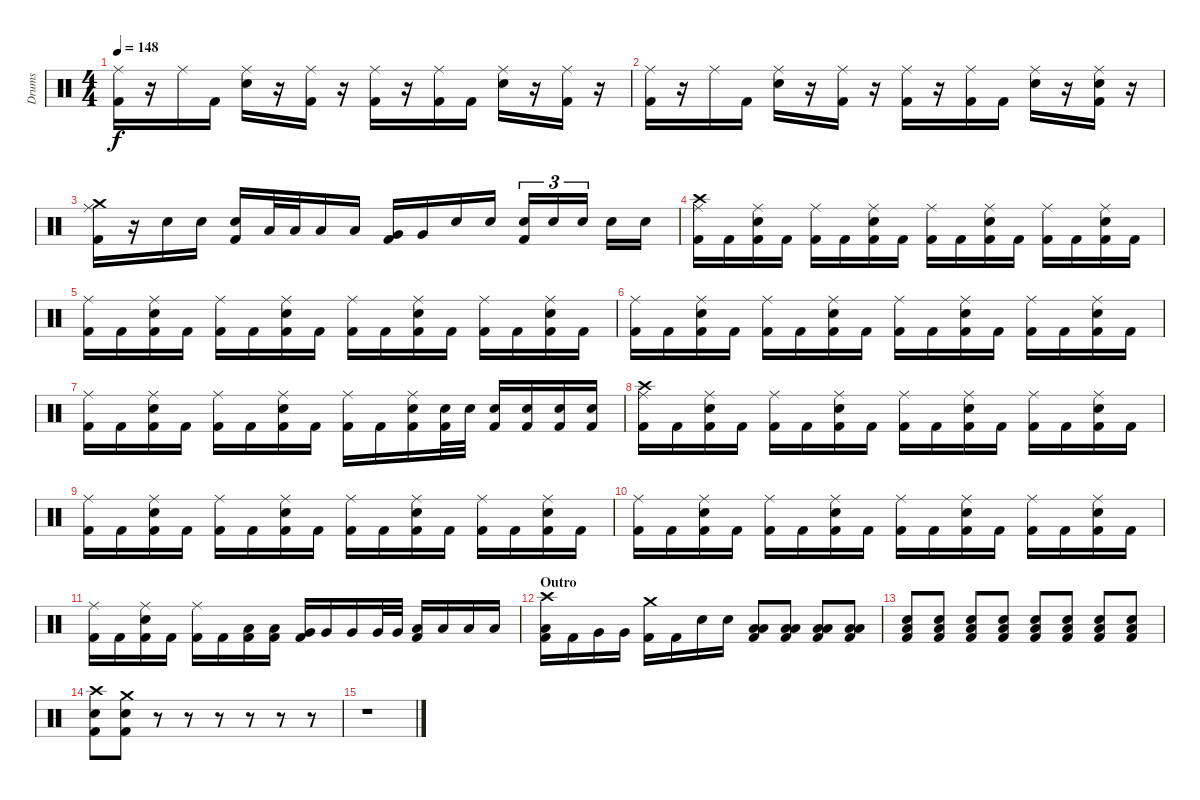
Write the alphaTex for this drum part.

\track ("Drums" "Drums") {instrument percussion}
\staff {score}
\articulation defaults
\ts (4 4)
\tempo 148
\clef neutral
\ks c
("Kick (hit) 2" "Ride (middle)").16{dy f} r.16 "Ride (middle)".16 "Kick (hit) 2".16 ("Electric Snare (hit)" "Ride (middle)").16 r.16 ("Kick (hit) 2" "Ride (middle)").16 r.16 ("Kick (hit) 2" "Ride (middle)").16 r.16 ("Kick (hit) 2" "Ride (middle)").16 "Kick (hit) 2".16 ("Electric Snare (hit)" "Ride (middle)").16 r.16 ("Kick (hit) 2" "Ride (middle)").16 r.16 |
("Kick (hit) 2" "Ride (middle)").16 r.16 "Ride (middle)".16 "Kick (hit) 2".16 ("Electric Snare (hit)" "Ride (middle)").16 r.16 ("Kick (hit) 2" "Ride (middle)").16 r.16 ("Kick (hit) 2" "Ride (middle)").16 r.16 ("Kick (hit) 2" "Ride (middle)").16 "Kick (hit) 2".16 ("Electric Snare (hit)" "Ride (middle)").16 r.16 ("Kick (hit) 2" "Electric Snare (hit)" "Ride (middle)").16 r.16 |
("Kick (hit) 2" "Ride (middle)" "Crash medium (hit)").16 r.16 "Electric Snare (hit)".16 "Electric Snare (hit)".16 ("Kick (hit) 2" "Electric Snare (hit)").16 "Low Tom (hit)".32 "Low Tom (hit)".32 "Low Tom (hit)".16 "Low Tom (hit)".16 ("Kick (hit) 2" "Very Low Tom (hit)").16 "Very Low Tom (hit)".16 "Electric Snare (hit)".16 "Electric Snare (hit)".16 ("Kick (hit) 2" "Electric Snare (hit)").16{tu (3 2)} "Electric Snare (hit)".16{tu (3 2)} "Electric Snare (hit)".16{tu (3 2)} "Electric Snare (hit)".16 "Electric Snare (hit)".16 |
("Kick (hit) 2" "Ride (middle)" "Crash high (hit)").16 "Kick (hit) 2".16 ("Kick (hit) 2" "Electric Snare (hit)" "Ride (middle)").16 "Kick (hit) 2".16 ("Kick (hit) 2" "Ride (middle)").16 "Kick (hit) 2".16 ("Kick (hit) 2" "Electric Snare (hit)" "Ride (middle)").16 "Kick (hit) 2".16 ("Kick (hit) 2" "Ride (middle)").16 "Kick (hit) 2".16 ("Kick (hit) 2" "Electric Snare (hit)" "Ride (middle)").16 "Kick (hit) 2".16 ("Kick (hit) 2" "Ride (middle)").16 "Kick (hit) 2".16 ("Kick (hit) 2" "Electric Snare (hit)" "Ride (middle)").16 "Kick (hit) 2".16 |
("Kick (hit) 2" "Ride (middle)").16 "Kick (hit) 2".16 ("Kick (hit) 2" "Electric Snare (hit)" "Ride (middle)").16 "Kick (hit) 2".16 ("Kick (hit) 2" "Ride (middle)").16 "Kick (hit) 2".16 ("Kick (hit) 2" "Electric Snare (hit)" "Ride (middle)").16 "Kick (hit) 2".16 ("Kick (hit) 2" "Ride (middle)").16 "Kick (hit) 2".16 ("Kick (hit) 2" "Electric Snare (hit)" "Ride (middle)").16 "Kick (hit) 2".16 ("Kick (hit) 2" "Ride (middle)").16 "Kick (hit) 2".16 ("Kick (hit) 2" "Electric Snare (hit)" "Ride (middle)").16 "Kick (hit) 2".16 |
("Kick (hit) 2" "Ride (middle)").16 "Kick (hit) 2".16 ("Kick (hit) 2" "Electric Snare (hit)" "Ride (middle)").16 "Kick (hit) 2".16 ("Kick (hit) 2" "Ride (middle)").16 "Kick (hit) 2".16 ("Kick (hit) 2" "Electric Snare (hit)" "Ride (middle)").16 "Kick (hit) 2".16 ("Kick (hit) 2" "Ride (middle)").16 "Kick (hit) 2".16 ("Kick (hit) 2" "Electric Snare (hit)" "Ride (middle)").16 "Kick (hit) 2".16 ("Kick (hit) 2" "Ride (middle)").16 "Kick (hit) 2".16 ("Kick (hit) 2" "Electric Snare (hit)" "Ride (middle)").16 "Kick (hit) 2".16 |
("Kick (hit) 2" "Ride (middle)").16 "Kick (hit) 2".16 ("Kick (hit) 2" "Electric Snare (hit)" "Ride (middle)").16 "Kick (hit) 2".16 ("Kick (hit) 2" "Ride (middle)").16 "Kick (hit) 2".16 ("Kick (hit) 2" "Electric Snare (hit)" "Ride (middle)").16 "Kick (hit) 2".16 ("Kick (hit) 2" "Ride (middle)").16 "Kick (hit) 2".16 ("Kick (hit) 2" "Electric Snare (hit)" "Ride (middle)").16 ("Kick (hit) 2" "Electric Snare (hit)").32 "Electric Snare (hit)".32 ("Kick (hit) 2" "Electric Snare (hit)").16 ("Kick (hit) 2" "Electric Snare (hit)").16 ("Kick (hit) 2" "Electric Snare (hit)").16 ("Kick (hit) 2" "Electric Snare (hit)").16 |
("Kick (hit) 2" "Ride (middle)" "Crash high (hit)").16 "Kick (hit) 2".16 ("Kick (hit) 2" "Electric Snare (hit)" "Ride (middle)").16 "Kick (hit) 2".16 ("Kick (hit) 2" "Ride (middle)").16 "Kick (hit) 2".16 ("Kick (hit) 2" "Electric Snare (hit)" "Ride (middle)").16 "Kick (hit) 2".16 ("Kick (hit) 2" "Ride (middle)").16 "Kick (hit) 2".16 ("Kick (hit) 2" "Electric Snare (hit)" "Ride (middle)").16 "Kick (hit) 2".16 ("Kick (hit) 2" "Ride (middle)").16 "Kick (hit) 2".16 ("Kick (hit) 2" "Electric Snare (hit)" "Ride (middle)").16 "Kick (hit) 2".16 |
("Kick (hit) 2" "Ride (middle)").16 "Kick (hit) 2".16 ("Kick (hit) 2" "Electric Snare (hit)" "Ride (middle)").16 "Kick (hit) 2".16 ("Kick (hit) 2" "Ride (middle)").16 "Kick (hit) 2".16 ("Kick (hit) 2" "Electric Snare (hit)" "Ride (middle)").16 "Kick (hit) 2".16 ("Kick (hit) 2" "Ride (middle)").16 "Kick (hit) 2".16 ("Kick (hit) 2" "Electric Snare (hit)" "Ride (middle)").16 "Kick (hit) 2".16 ("Kick (hit) 2" "Ride (middle)").16 "Kick (hit) 2".16 ("Kick (hit) 2" "Electric Snare (hit)" "Ride (middle)").16 "Kick (hit) 2".16 |
("Kick (hit) 2" "Ride (middle)").16 "Kick (hit) 2".16 ("Kick (hit) 2" "Electric Snare (hit)" "Ride (middle)").16 "Kick (hit) 2".16 ("Kick (hit) 2" "Ride (middle)").16 "Kick (hit) 2".16 ("Kick (hit) 2" "Electric Snare (hit)" "Ride (middle)").16 "Kick (hit) 2".16 ("Kick (hit) 2" "Ride (middle)").16 "Kick (hit) 2".16 ("Kick (hit) 2" "Electric Snare (hit)" "Ride (middle)").16 "Kick (hit) 2".16 ("Kick (hit) 2" "Ride (middle)").16 "Kick (hit) 2".16 ("Kick (hit) 2" "Electric Snare (hit)" "Ride (middle)").16 "Kick (hit) 2".16 |
("Kick (hit) 2" "Ride (middle)").16 "Kick (hit) 2".16 ("Kick (hit) 2" "Electric Snare (hit)" "Ride (middle)").16 "Kick (hit) 2".16 ("Kick (hit) 2" "Ride (middle)").16 "Kick (hit) 2".16 ("Kick (hit) 2" "Low Tom (hit)").16 ("Kick (hit) 2" "Low Tom (hit)").16 ("Kick (hit) 2" "Very Low Tom (hit)").16 "Very Low Tom (hit)".16 "Very Low Tom (hit)".16 "Very Low Tom (hit)".32 "Very Low Tom (hit)".32 ("Kick (hit) 2" "Low Floor Tom (hit)").16 "Low Floor Tom (hit)".16 "Low Floor Tom (hit)".16 "Low Floor Tom (hit)".16 |
\section ("" "Outro")
("Kick (hit) 2" "Low Tom (hit)" "Crash high (hit)").16 "Kick (hit) 2".16 "Very Low Tom (hit)".16 "Very Low Tom (hit)".16 ("Kick (hit) 2" "Crash medium (hit)").16 "Kick (hit) 2".16 "Electric Snare (hit)".16 "Electric Snare (hit)".16 ("Kick (hit) 2" "Low Tom (hit)" "Low Floor Tom (hit)").8 ("Kick (hit) 2" "Low Tom (hit)" "Low Floor Tom (hit)").8 ("Kick (hit) 2" "Low Tom (hit)" "Low Floor Tom (hit)").8 ("Kick (hit) 2" "Low Tom (hit)" "Low Floor Tom (hit)").8 |
("Kick (hit) 2" "Electric Snare (hit)" "Low Floor Tom (hit)").8 ("Kick (hit) 2" "Electric Snare (hit)" "Low Floor Tom (hit)").8 ("Kick (hit) 2" "Electric Snare (hit)" "Low Floor Tom (hit)").8 ("Kick (hit) 2" "Electric Snare (hit)" "Low Floor Tom (hit)").8 ("Kick (hit) 2" "Electric Snare (hit)" "Low Floor Tom (hit)").8 ("Kick (hit) 2" "Electric Snare (hit)" "Low Floor Tom (hit)").8 ("Kick (hit) 2" "Electric Snare (hit)" "Low Floor Tom (hit)").8 ("Kick (hit) 2" "Electric Snare (hit)" "Low Floor Tom (hit)").8 |
("Kick (hit) 2" "Electric Snare (hit)" "Crash high (hit)").8 ("Kick (hit) 2" "Electric Snare (hit)" "Crash medium (hit)").8 r.8 r.8 r.8 r.8 r.8 r.8 |
r.1
